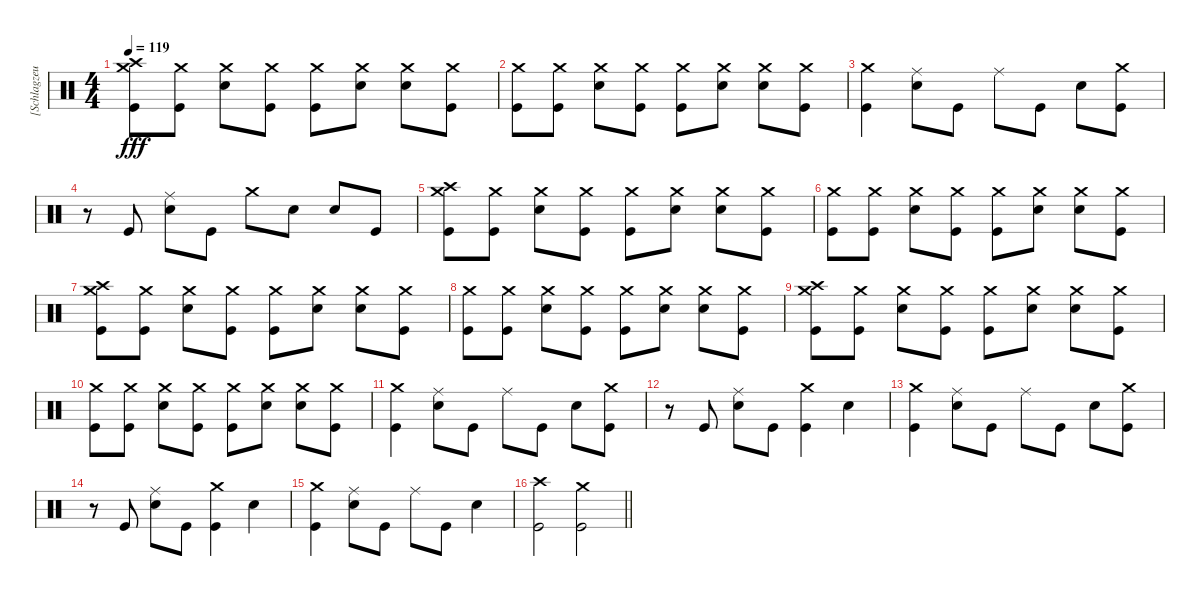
\track ("[Schlagzeug]" "[Schlagzeu") {instrument percussion}
\staff {score}
\articulation defaults
\ts (4 4)
\tempo 119
\clef neutral
\ks c
("Crash medium (hit)" "Crash high (hit)" "Kick (hit)").8{dy fff} ("Crash medium (hit)" "Kick (hit)").8 ("Crash medium (hit)" "Electric Snare (hit)").8 ("Crash medium (hit)" "Kick (hit)").8 ("Crash medium (hit)" "Kick (hit)").8 ("Crash medium (hit)" "Electric Snare (hit)").8 ("Crash medium (hit)" "Electric Snare (hit)").8 ("Crash medium (hit)" "Kick (hit)").8 |
("Crash medium (hit)" "Kick (hit)").8 ("Crash medium (hit)" "Kick (hit)").8 ("Crash medium (hit)" "Electric Snare (hit)").8 ("Crash medium (hit)" "Kick (hit)").8 ("Crash medium (hit)" "Kick (hit)").8 ("Crash medium (hit)" "Electric Snare (hit)").8 ("Crash medium (hit)" "Electric Snare (hit)").8 ("Crash medium (hit)" "Kick (hit)").8 |
("Crash medium (hit)" "Kick (hit)").4 ("Ride (middle)" "Electric Snare (hit)").8 "Kick (hit)".8 "Ride (middle)".8 "Kick (hit)".8 "Electric Snare (hit)".8 ("Crash medium (hit)" "Kick (hit)").8 |
r.8 "Kick (hit)".8 ("Ride (middle)" "Electric Snare (hit)").8 "Kick (hit)".8 "Crash medium (hit)".8 "Electric Snare (hit)".8 "Electric Snare (hit)".8 "Kick (hit)".8 |
("Crash medium (hit)" "Crash high (hit)" "Kick (hit)").8 ("Crash medium (hit)" "Kick (hit)").8 ("Crash medium (hit)" "Electric Snare (hit)").8 ("Crash medium (hit)" "Kick (hit)").8 ("Crash medium (hit)" "Kick (hit)").8 ("Crash medium (hit)" "Electric Snare (hit)").8 ("Crash medium (hit)" "Electric Snare (hit)").8 ("Crash medium (hit)" "Kick (hit)").8 |
("Crash medium (hit)" "Kick (hit)").8 ("Crash medium (hit)" "Kick (hit)").8 ("Crash medium (hit)" "Electric Snare (hit)").8 ("Crash medium (hit)" "Kick (hit)").8 ("Crash medium (hit)" "Kick (hit)").8 ("Crash medium (hit)" "Electric Snare (hit)").8 ("Crash medium (hit)" "Electric Snare (hit)").8 ("Crash medium (hit)" "Kick (hit)").8 |
("Crash medium (hit)" "Crash high (hit)" "Kick (hit)").8 ("Crash medium (hit)" "Kick (hit)").8 ("Crash medium (hit)" "Electric Snare (hit)").8 ("Crash medium (hit)" "Kick (hit)").8 ("Crash medium (hit)" "Kick (hit)").8 ("Crash medium (hit)" "Electric Snare (hit)").8 ("Crash medium (hit)" "Electric Snare (hit)").8 ("Crash medium (hit)" "Kick (hit)").8 |
("Crash medium (hit)" "Kick (hit)").8 ("Crash medium (hit)" "Kick (hit)").8 ("Crash medium (hit)" "Electric Snare (hit)").8 ("Crash medium (hit)" "Kick (hit)").8 ("Crash medium (hit)" "Kick (hit)").8 ("Crash medium (hit)" "Electric Snare (hit)").8 ("Crash medium (hit)" "Electric Snare (hit)").8 ("Crash medium (hit)" "Kick (hit)").8 |
("Crash medium (hit)" "Crash high (hit)" "Kick (hit)").8 ("Crash medium (hit)" "Kick (hit)").8 ("Crash medium (hit)" "Electric Snare (hit)").8 ("Crash medium (hit)" "Kick (hit)").8 ("Crash medium (hit)" "Kick (hit)").8 ("Crash medium (hit)" "Electric Snare (hit)").8 ("Crash medium (hit)" "Electric Snare (hit)").8 ("Crash medium (hit)" "Kick (hit)").8 |
("Crash medium (hit)" "Kick (hit)").8 ("Crash medium (hit)" "Kick (hit)").8 ("Crash medium (hit)" "Electric Snare (hit)").8 ("Crash medium (hit)" "Kick (hit)").8 ("Crash medium (hit)" "Kick (hit)").8 ("Crash medium (hit)" "Electric Snare (hit)").8 ("Crash medium (hit)" "Electric Snare (hit)").8 ("Crash medium (hit)" "Kick (hit)").8 |
("Crash medium (hit)" "Kick (hit)").4 ("Ride (middle)" "Electric Snare (hit)").8 "Kick (hit)".8 "Ride (middle)".8 "Kick (hit)".8 "Electric Snare (hit)".8 ("Crash medium (hit)" "Kick (hit)").8 |
r.8 "Kick (hit)".8 ("Ride (middle)" "Electric Snare (hit)").8 "Kick (hit)".8 ("Crash medium (hit)" "Kick (hit)").4 "Electric Snare (hit)".4 |
("Crash medium (hit)" "Kick (hit)").4 ("Ride (middle)" "Electric Snare (hit)").8 "Kick (hit)".8 "Ride (middle)".8 "Kick (hit)".8 "Electric Snare (hit)".8 ("Crash medium (hit)" "Kick (hit)").8 |
r.8 "Kick (hit)".8 ("Ride (middle)" "Electric Snare (hit)").8 "Kick (hit)".8 ("Crash medium (hit)" "Kick (hit)").4 "Electric Snare (hit)".4 |
("Crash medium (hit)" "Kick (hit)").4 ("Ride (middle)" "Electric Snare (hit)").8 "Kick (hit)".8 "Ride (middle)".8 "Kick (hit)".8 "Electric Snare (hit)".4 |
\barLineRight lightlight
("Crash high (hit)" "Kick (hit)").2 ("Crash medium (hit)" "Kick (hit)").2
